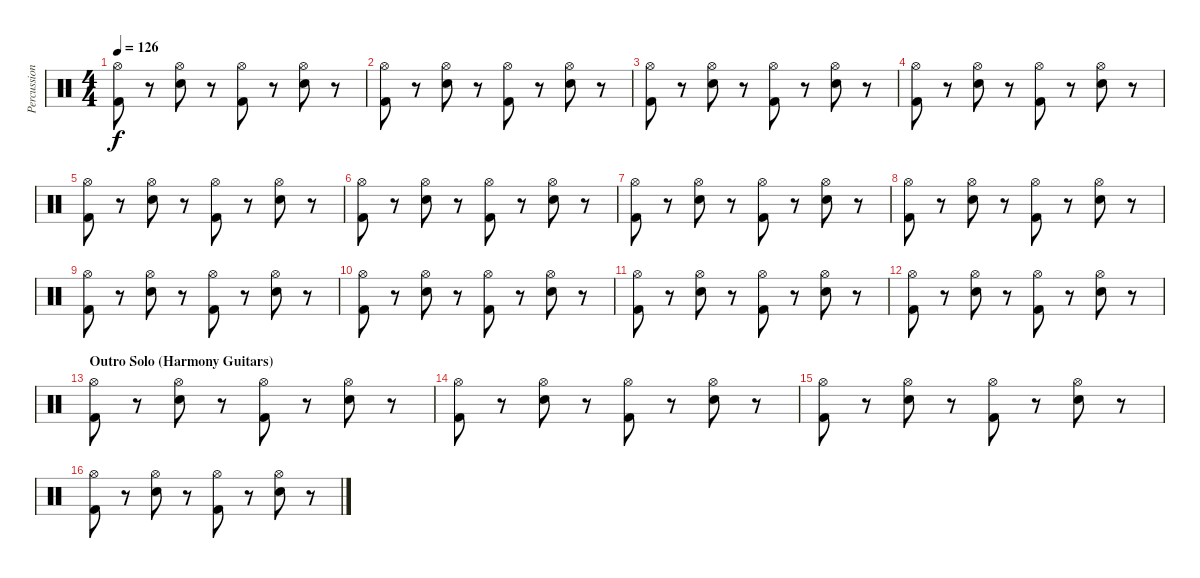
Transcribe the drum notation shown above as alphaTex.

\track ("Percussion" "Percussion") {instrument percussion}
\staff {score}
\articulation defaults
\ts (4 4)
\tempo 126
\clef neutral
\ks c
("Hi-Hat (open)" "Kick (hit) 2").8{dy f} r.8 ("Hi-Hat (open)" "Snare (hit) 2").8 r.8 ("Hi-Hat (open)" "Kick (hit) 2").8 r.8 ("Hi-Hat (open)" "Snare (hit) 2").8 r.8 |
("Hi-Hat (open)" "Kick (hit) 2").8 r.8 ("Hi-Hat (open)" "Snare (hit) 2").8 r.8 ("Hi-Hat (open)" "Kick (hit) 2").8 r.8 ("Hi-Hat (open)" "Snare (hit) 2").8 r.8 |
("Hi-Hat (open)" "Kick (hit) 2").8 r.8 ("Hi-Hat (open)" "Snare (hit) 2").8 r.8 ("Hi-Hat (open)" "Kick (hit) 2").8 r.8 ("Hi-Hat (open)" "Snare (hit) 2").8 r.8 |
("Hi-Hat (open)" "Kick (hit) 2").8 r.8 ("Hi-Hat (open)" "Snare (hit) 2").8 r.8 ("Hi-Hat (open)" "Kick (hit) 2").8 r.8 ("Hi-Hat (open)" "Snare (hit) 2").8 r.8 |
("Hi-Hat (open)" "Kick (hit) 2").8 r.8 ("Hi-Hat (open)" "Snare (hit) 2").8 r.8 ("Hi-Hat (open)" "Kick (hit) 2").8 r.8 ("Hi-Hat (open)" "Snare (hit) 2").8 r.8 |
("Hi-Hat (open)" "Kick (hit) 2").8 r.8 ("Hi-Hat (open)" "Snare (hit) 2").8 r.8 ("Hi-Hat (open)" "Kick (hit) 2").8 r.8 ("Hi-Hat (open)" "Snare (hit) 2").8 r.8 |
("Hi-Hat (open)" "Kick (hit) 2").8 r.8 ("Hi-Hat (open)" "Snare (hit) 2").8 r.8 ("Hi-Hat (open)" "Kick (hit) 2").8 r.8 ("Hi-Hat (open)" "Snare (hit) 2").8 r.8 |
("Hi-Hat (open)" "Kick (hit) 2").8 r.8 ("Hi-Hat (open)" "Snare (hit) 2").8 r.8 ("Hi-Hat (open)" "Kick (hit) 2").8 r.8 ("Hi-Hat (open)" "Snare (hit) 2").8 r.8 |
("Hi-Hat (open)" "Kick (hit) 2").8 r.8 ("Hi-Hat (open)" "Snare (hit) 2").8 r.8 ("Hi-Hat (open)" "Kick (hit) 2").8 r.8 ("Hi-Hat (open)" "Snare (hit) 2").8 r.8 |
("Hi-Hat (open)" "Kick (hit) 2").8 r.8 ("Hi-Hat (open)" "Snare (hit) 2").8 r.8 ("Hi-Hat (open)" "Kick (hit) 2").8 r.8 ("Hi-Hat (open)" "Snare (hit) 2").8 r.8 |
("Hi-Hat (open)" "Kick (hit) 2").8 r.8 ("Hi-Hat (open)" "Snare (hit) 2").8 r.8 ("Hi-Hat (open)" "Kick (hit) 2").8 r.8 ("Hi-Hat (open)" "Snare (hit) 2").8 r.8 |
("Hi-Hat (open)" "Kick (hit) 2").8 r.8 ("Hi-Hat (open)" "Snare (hit) 2").8 r.8 ("Hi-Hat (open)" "Kick (hit) 2").8 r.8 ("Hi-Hat (open)" "Snare (hit) 2").8 r.8 |
\section ("" "Outro Solo (Harmony Guitars)")
("Hi-Hat (open)" "Kick (hit) 2").8 r.8 ("Hi-Hat (open)" "Snare (hit) 2").8 r.8 ("Hi-Hat (open)" "Kick (hit) 2").8 r.8 ("Hi-Hat (open)" "Snare (hit) 2").8 r.8 |
("Hi-Hat (open)" "Kick (hit) 2").8 r.8 ("Hi-Hat (open)" "Snare (hit) 2").8 r.8 ("Hi-Hat (open)" "Kick (hit) 2").8 r.8 ("Hi-Hat (open)" "Snare (hit) 2").8 r.8 |
("Hi-Hat (open)" "Kick (hit) 2").8 r.8 ("Hi-Hat (open)" "Snare (hit) 2").8 r.8 ("Hi-Hat (open)" "Kick (hit) 2").8 r.8 ("Hi-Hat (open)" "Snare (hit) 2").8 r.8 |
("Hi-Hat (open)" "Kick (hit) 2").8 r.8 ("Hi-Hat (open)" "Snare (hit) 2").8 r.8 ("Hi-Hat (open)" "Kick (hit) 2").8 r.8 ("Hi-Hat (open)" "Snare (hit) 2").8 r.8
